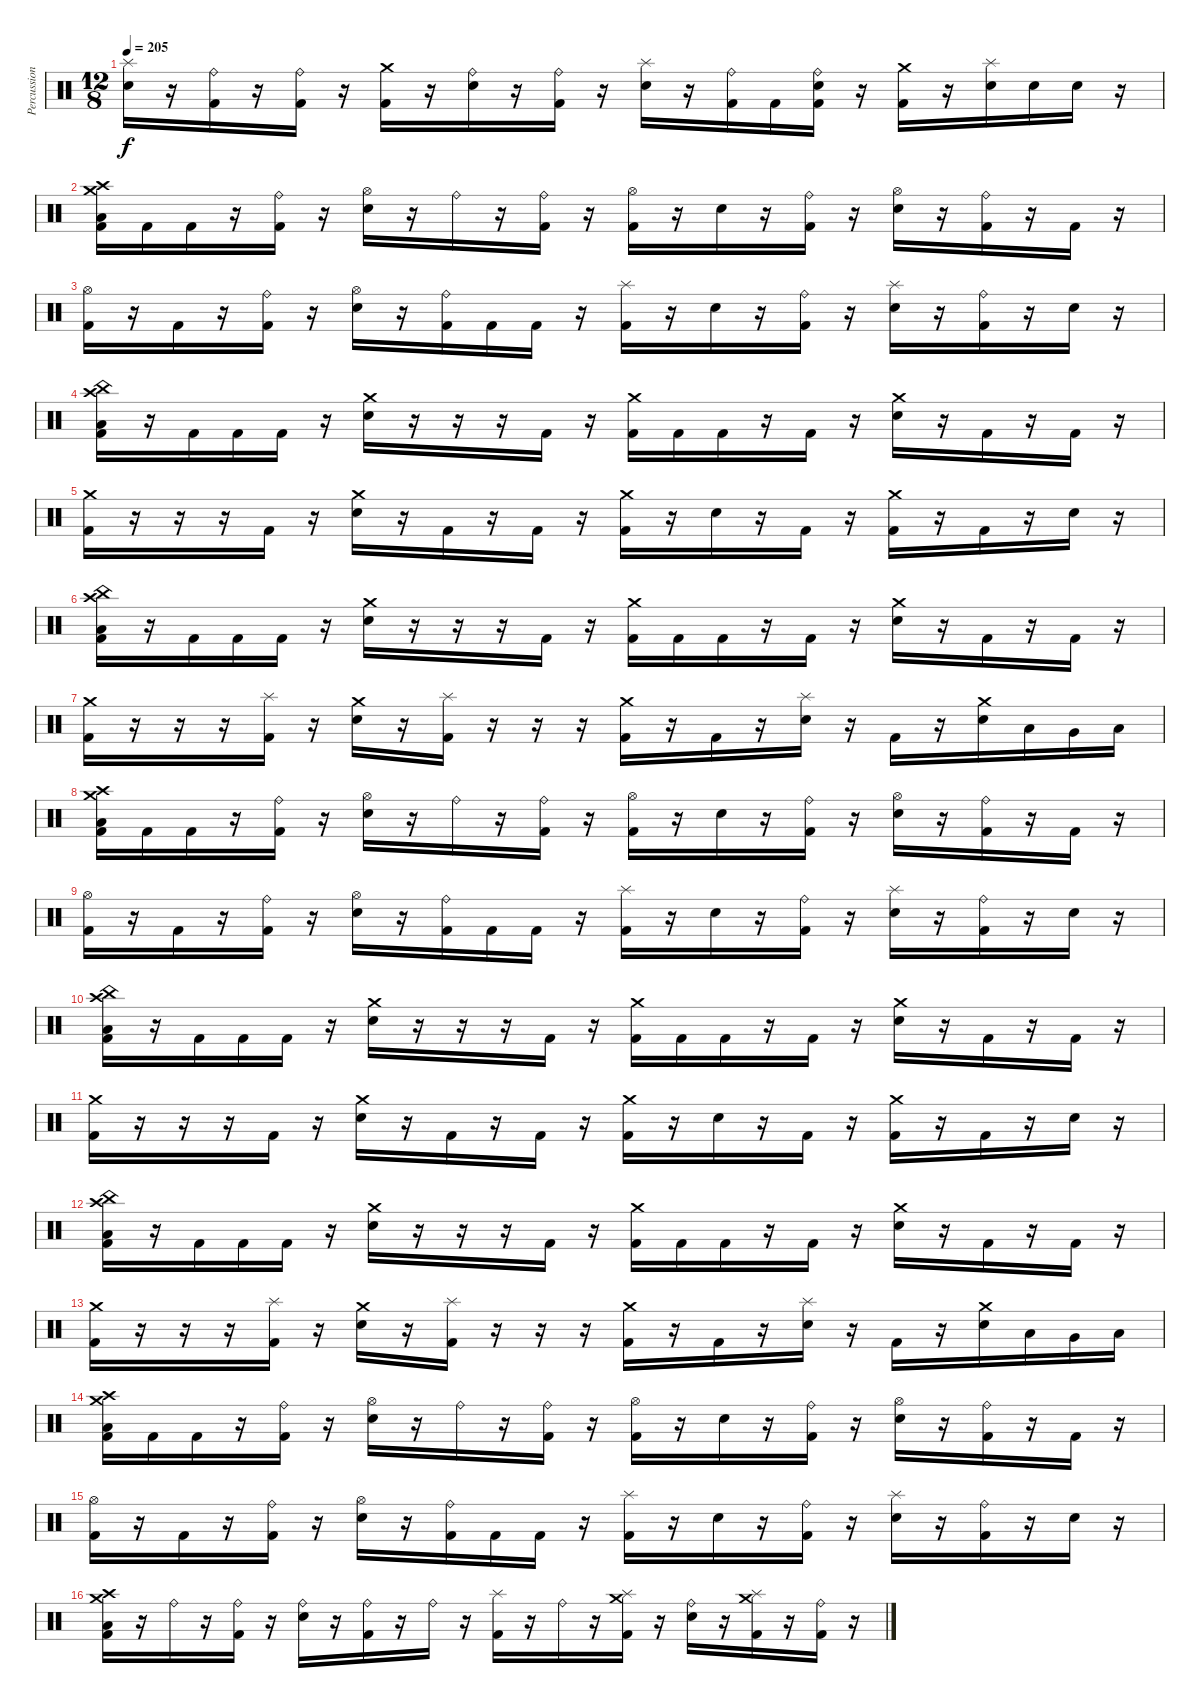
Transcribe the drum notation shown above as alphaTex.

\track ("Percussion" "Percussion") {instrument percussion}
\staff {score}
\articulation defaults
\ts (12 8)
\tempo 205
\clef neutral
\ks c
("Splash (hit)" "Electric Snare (hit)").16{dy f} r.16 ("Ride (bell)" "Kick (hit) 2").16 r.16 ("Ride (bell)" "Kick (hit) 2").16 r.16 ("Crash medium (hit)" "Kick (hit) 2").16 r.16 ("Ride (bell)" "Electric Snare (hit)").16 r.16 ("Ride (bell)" "Kick (hit) 2").16 r.16 ("Splash (hit)" "Electric Snare (hit)").16 r.16 ("Ride (bell)" "Kick (hit) 2").16 "Kick (hit) 2".16 ("Ride (bell)" "Electric Snare (hit)" "Kick (hit) 2").16 r.16 ("Crash medium (hit)" "Kick (hit) 2").16 r.16 ("Splash (hit)" "Electric Snare (hit)").16 "Electric Snare (hit)".16 "Electric Snare (hit)".16 r.16 |
("Crash high (hit)" "Crash medium (hit)" "Low Floor Tom (hit)" "Kick (hit) 2").16 "Kick (hit) 2".16 "Kick (hit) 2".16 r.16 ("Ride (bell)" "Kick (hit) 2").16 r.16 ("Hi-Hat (open)" "Electric Snare (hit)").16 r.16 "Ride (bell)".16 r.16 ("Ride (bell)" "Kick (hit) 2").16 r.16 ("Hi-Hat (open)" "Kick (hit) 2").16 r.16 "Electric Snare (hit)".16 r.16 ("Ride (bell)" "Kick (hit) 2").16 r.16 ("Hi-Hat (open)" "Electric Snare (hit)").16 r.16 ("Ride (bell)" "Kick (hit) 2").16 r.16 "Kick (hit) 2".16 r.16 |
("Hi-Hat (open)" "Kick (hit) 2").16 r.16 "Kick (hit) 2".16 r.16 ("Ride (bell)" "Kick (hit) 2").16 r.16 ("Hi-Hat (open)" "Electric Snare (hit)").16 r.16 ("Ride (bell)" "Kick (hit) 2").16 "Kick (hit) 2".16 "Kick (hit) 2".16 r.16 ("Splash (hit)" "Kick (hit) 2").16 r.16 "Electric Snare (hit)".16 r.16 ("Ride (bell)" "Kick (hit) 2").16 r.16 ("Splash (hit)" "Electric Snare (hit)").16 r.16 ("Ride (bell)" "Kick (hit) 2").16 r.16 "Electric Snare (hit)".16 r.16 |
("Crash high (hit)" "China (hit)" "Low Floor Tom (hit)" "Kick (hit) 2").16 r.16 "Kick (hit) 2".16 "Kick (hit) 2".16 "Kick (hit) 2".16 r.16 ("Crash medium (hit)" "Electric Snare (hit)").16 r.16 r.16 r.16 "Kick (hit) 2".16 r.16 ("Crash medium (hit)" "Kick (hit) 2").16 "Kick (hit) 2".16 "Kick (hit) 2".16 r.16 "Kick (hit) 2".16 r.16 ("Crash medium (hit)" "Electric Snare (hit)").16 r.16 "Kick (hit) 2".16 r.16 "Kick (hit) 2".16 r.16 |
("Crash medium (hit)" "Kick (hit) 2").16 r.16 r.16 r.16 "Kick (hit) 2".16 r.16 ("Crash medium (hit)" "Electric Snare (hit)").16 r.16 "Kick (hit) 2".16 r.16 "Kick (hit) 2".16 r.16 ("Crash medium (hit)" "Kick (hit) 2").16 r.16 "Electric Snare (hit)".16 r.16 "Kick (hit) 2".16 r.16 ("Crash medium (hit)" "Kick (hit) 2").16 r.16 "Kick (hit) 2".16 r.16 "Electric Snare (hit)".16 r.16 |
("Crash high (hit)" "China (hit)" "Low Floor Tom (hit)" "Kick (hit) 2").16 r.16 "Kick (hit) 2".16 "Kick (hit) 2".16 "Kick (hit) 2".16 r.16 ("Crash medium (hit)" "Electric Snare (hit)").16 r.16 r.16 r.16 "Kick (hit) 2".16 r.16 ("Crash medium (hit)" "Kick (hit) 2").16 "Kick (hit) 2".16 "Kick (hit) 2".16 r.16 "Kick (hit) 2".16 r.16 ("Crash medium (hit)" "Electric Snare (hit)").16 r.16 "Kick (hit) 2".16 r.16 "Kick (hit) 2".16 r.16 |
("Crash medium (hit)" "Kick (hit) 2").16 r.16 r.16 r.16 ("Splash (hit)" "Kick (hit) 2").16 r.16 ("Crash medium (hit)" "Electric Snare (hit)").16 r.16 ("Splash (hit)" "Kick (hit) 2").16 r.16 r.16 r.16 ("Crash medium (hit)" "Kick (hit) 2").16 r.16 "Kick (hit) 2".16 r.16 ("Splash (hit)" "Electric Snare (hit)").16 r.16 "Kick (hit) 2".16 r.16 ("Crash medium (hit)" "Electric Snare (hit)").16 "Low Tom (hit)".16 "Very Low Tom (hit)".16 "Low Floor Tom (hit)".16 |
("Crash high (hit)" "Crash medium (hit)" "Low Floor Tom (hit)" "Kick (hit) 2").16 "Kick (hit) 2".16 "Kick (hit) 2".16 r.16 ("Ride (bell)" "Kick (hit) 2").16 r.16 ("Hi-Hat (open)" "Electric Snare (hit)").16 r.16 "Ride (bell)".16 r.16 ("Ride (bell)" "Kick (hit) 2").16 r.16 ("Hi-Hat (open)" "Kick (hit) 2").16 r.16 "Electric Snare (hit)".16 r.16 ("Ride (bell)" "Kick (hit) 2").16 r.16 ("Hi-Hat (open)" "Electric Snare (hit)").16 r.16 ("Ride (bell)" "Kick (hit) 2").16 r.16 "Kick (hit) 2".16 r.16 |
("Hi-Hat (open)" "Kick (hit) 2").16 r.16 "Kick (hit) 2".16 r.16 ("Ride (bell)" "Kick (hit) 2").16 r.16 ("Hi-Hat (open)" "Electric Snare (hit)").16 r.16 ("Ride (bell)" "Kick (hit) 2").16 "Kick (hit) 2".16 "Kick (hit) 2".16 r.16 ("Splash (hit)" "Kick (hit) 2").16 r.16 "Electric Snare (hit)".16 r.16 ("Ride (bell)" "Kick (hit) 2").16 r.16 ("Splash (hit)" "Electric Snare (hit)").16 r.16 ("Ride (bell)" "Kick (hit) 2").16 r.16 "Electric Snare (hit)".16 r.16 |
("Crash high (hit)" "China (hit)" "Low Floor Tom (hit)" "Kick (hit) 2").16 r.16 "Kick (hit) 2".16 "Kick (hit) 2".16 "Kick (hit) 2".16 r.16 ("Crash medium (hit)" "Electric Snare (hit)").16 r.16 r.16 r.16 "Kick (hit) 2".16 r.16 ("Crash medium (hit)" "Kick (hit) 2").16 "Kick (hit) 2".16 "Kick (hit) 2".16 r.16 "Kick (hit) 2".16 r.16 ("Crash medium (hit)" "Electric Snare (hit)").16 r.16 "Kick (hit) 2".16 r.16 "Kick (hit) 2".16 r.16 |
("Crash medium (hit)" "Kick (hit) 2").16 r.16 r.16 r.16 "Kick (hit) 2".16 r.16 ("Crash medium (hit)" "Electric Snare (hit)").16 r.16 "Kick (hit) 2".16 r.16 "Kick (hit) 2".16 r.16 ("Crash medium (hit)" "Kick (hit) 2").16 r.16 "Electric Snare (hit)".16 r.16 "Kick (hit) 2".16 r.16 ("Crash medium (hit)" "Kick (hit) 2").16 r.16 "Kick (hit) 2".16 r.16 "Electric Snare (hit)".16 r.16 |
("Crash high (hit)" "China (hit)" "Low Floor Tom (hit)" "Kick (hit) 2").16 r.16 "Kick (hit) 2".16 "Kick (hit) 2".16 "Kick (hit) 2".16 r.16 ("Crash medium (hit)" "Electric Snare (hit)").16 r.16 r.16 r.16 "Kick (hit) 2".16 r.16 ("Crash medium (hit)" "Kick (hit) 2").16 "Kick (hit) 2".16 "Kick (hit) 2".16 r.16 "Kick (hit) 2".16 r.16 ("Crash medium (hit)" "Electric Snare (hit)").16 r.16 "Kick (hit) 2".16 r.16 "Kick (hit) 2".16 r.16 |
("Crash medium (hit)" "Kick (hit) 2").16 r.16 r.16 r.16 ("Splash (hit)" "Kick (hit) 2").16 r.16 ("Crash medium (hit)" "Electric Snare (hit)").16 r.16 ("Splash (hit)" "Kick (hit) 2").16 r.16 r.16 r.16 ("Crash medium (hit)" "Kick (hit) 2").16 r.16 "Kick (hit) 2".16 r.16 ("Splash (hit)" "Electric Snare (hit)").16 r.16 "Kick (hit) 2".16 r.16 ("Crash medium (hit)" "Electric Snare (hit)").16 "Low Tom (hit)".16 "Very Low Tom (hit)".16 "Low Floor Tom (hit)".16 |
("Crash high (hit)" "Crash medium (hit)" "Low Floor Tom (hit)" "Kick (hit) 2").16 "Kick (hit) 2".16 "Kick (hit) 2".16 r.16 ("Ride (bell)" "Kick (hit) 2").16 r.16 ("Hi-Hat (open)" "Electric Snare (hit)").16 r.16 "Ride (bell)".16 r.16 ("Ride (bell)" "Kick (hit) 2").16 r.16 ("Hi-Hat (open)" "Kick (hit) 2").16 r.16 "Electric Snare (hit)".16 r.16 ("Ride (bell)" "Kick (hit) 2").16 r.16 ("Hi-Hat (open)" "Electric Snare (hit)").16 r.16 ("Ride (bell)" "Kick (hit) 2").16 r.16 "Kick (hit) 2".16 r.16 |
("Hi-Hat (open)" "Kick (hit) 2").16 r.16 "Kick (hit) 2".16 r.16 ("Ride (bell)" "Kick (hit) 2").16 r.16 ("Hi-Hat (open)" "Electric Snare (hit)").16 r.16 ("Ride (bell)" "Kick (hit) 2").16 "Kick (hit) 2".16 "Kick (hit) 2".16 r.16 ("Splash (hit)" "Kick (hit) 2").16 r.16 "Electric Snare (hit)".16 r.16 ("Ride (bell)" "Kick (hit) 2").16 r.16 ("Splash (hit)" "Electric Snare (hit)").16 r.16 ("Ride (bell)" "Kick (hit) 2").16 r.16 "Electric Snare (hit)".16 r.16 |
("Crash high (hit)" "Crash medium (hit)" "Low Floor Tom (hit)" "Kick (hit) 2").16 r.16 "Ride (bell)".16 r.16 ("Ride (bell)" "Kick (hit) 2").16 r.16 ("Ride (bell)" "Electric Snare (hit)").16 r.16 ("Ride (bell)" "Kick (hit) 2").16 r.16 "Ride (bell)".16 r.16 ("Splash (hit)" "Kick (hit) 2").16 r.16 "Ride (bell)".16 r.16 ("Splash (hit)" "Crash medium (hit)" "Kick (hit) 2").16 r.16 ("Ride (bell)" "Electric Snare (hit)").16 r.16 ("Splash (hit)" "Crash medium (hit)" "Kick (hit) 2").16 r.16 ("Ride (bell)" "Kick (hit) 2").16 r.16
